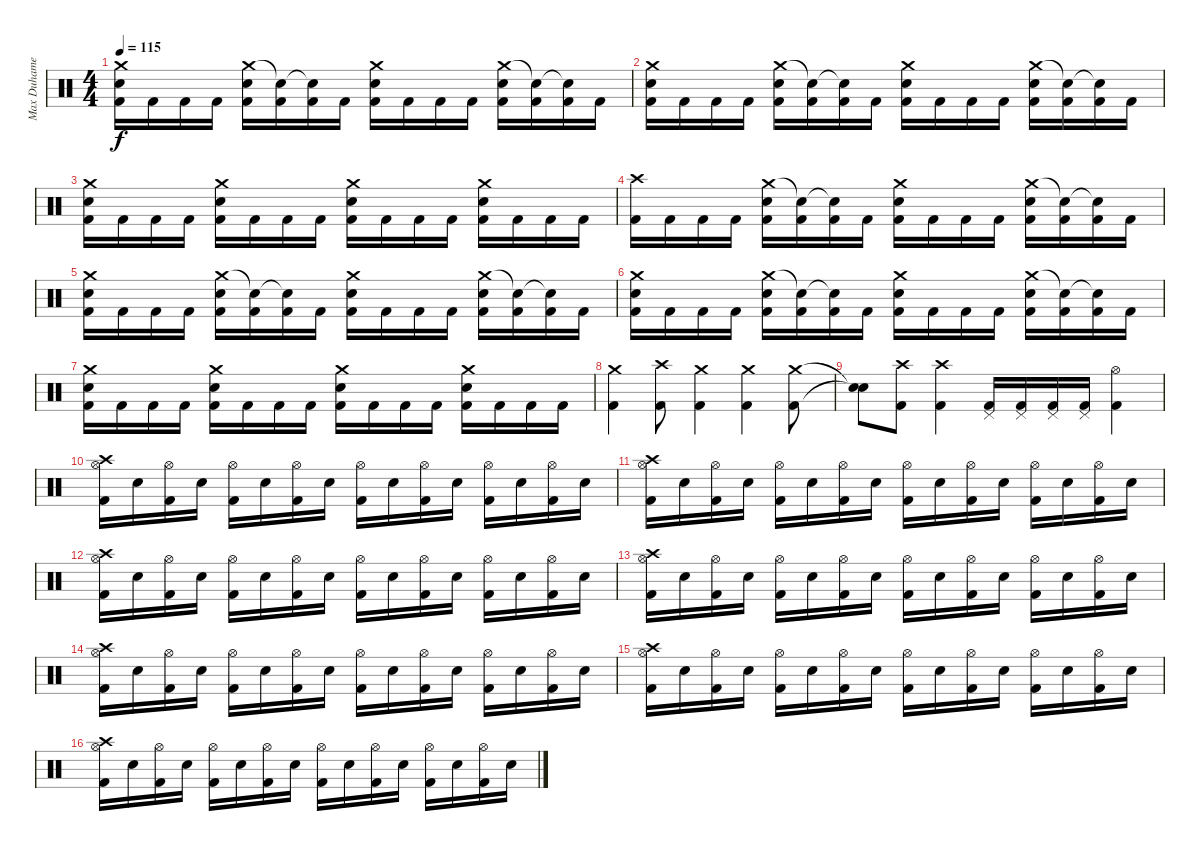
\track ("Max Duhamel (Drums)" "Max Duhame") {instrument percussion}
\staff {score}
\articulation defaults
\ts (4 4)
\tempo 115
\clef neutral
\ks c
("Crash medium (hit)" "Electric Snare (hit)" "Kick (hit) 2").16{dy f} "Kick (hit) 2".16 "Kick (hit) 2".16 "Kick (hit) 2".16 ("Crash medium (hit)" "Electric Snare (hit)" "Kick (hit) 2").16 ("Snare (hit)"{t} "Kick (hit) 2").16 ("Snare (hit)"{t} "Kick (hit) 2").16 "Kick (hit) 2".16 ("Crash medium (hit)" "Electric Snare (hit)" "Kick (hit) 2").16 "Kick (hit) 2".16 "Kick (hit) 2".16 "Kick (hit) 2".16 ("Crash medium (hit)" "Electric Snare (hit)" "Kick (hit) 2").16 ("Snare (hit)"{t} "Kick (hit) 2").16 ("Snare (hit)"{t} "Kick (hit) 2").16 "Kick (hit) 2".16 |
("Crash medium (hit)" "Electric Snare (hit)" "Kick (hit) 2").16 "Kick (hit) 2".16 "Kick (hit) 2".16 "Kick (hit) 2".16 ("Crash medium (hit)" "Electric Snare (hit)" "Kick (hit) 2").16 ("Snare (hit)"{t} "Kick (hit) 2").16 ("Snare (hit)"{t} "Kick (hit) 2").16 "Kick (hit) 2".16 ("Crash medium (hit)" "Electric Snare (hit)" "Kick (hit) 2").16 "Kick (hit) 2".16 "Kick (hit) 2".16 "Kick (hit) 2".16 ("Crash medium (hit)" "Electric Snare (hit)" "Kick (hit) 2").16 ("Snare (hit)"{t} "Kick (hit) 2").16 ("Snare (hit)"{t} "Kick (hit) 2").16 "Kick (hit) 2".16 |
("Crash medium (hit)" "Electric Snare (hit)" "Kick (hit) 2").16 "Kick (hit) 2".16 "Kick (hit) 2".16 "Kick (hit) 2".16 ("Crash medium (hit)" "Electric Snare (hit)" "Kick (hit) 2").16 "Kick (hit) 2".16 "Kick (hit) 2".16 "Kick (hit) 2".16 ("Crash medium (hit)" "Electric Snare (hit)" "Kick (hit) 2").16 "Kick (hit) 2".16 "Kick (hit) 2".16 "Kick (hit) 2".16 ("Crash medium (hit)" "Electric Snare (hit)" "Kick (hit) 2").16 "Kick (hit) 2".16 "Kick (hit) 2".16 "Kick (hit) 2".16 |
("Crash high (hit)" "Kick (hit) 2").16 "Kick (hit) 2".16 "Kick (hit) 2".16 "Kick (hit) 2".16 ("Crash medium (hit)" "Electric Snare (hit)" "Kick (hit) 2").16 ("Snare (hit)"{t} "Kick (hit) 2").16 ("Snare (hit)"{t} "Kick (hit) 2").16 "Kick (hit) 2".16 ("Crash medium (hit)" "Electric Snare (hit)" "Kick (hit) 2").16 "Kick (hit) 2".16 "Kick (hit) 2".16 "Kick (hit) 2".16 ("Crash medium (hit)" "Electric Snare (hit)" "Kick (hit) 2").16 ("Snare (hit)"{t} "Kick (hit) 2").16 ("Snare (hit)"{t} "Kick (hit) 2").16 "Kick (hit) 2".16 |
("Crash medium (hit)" "Electric Snare (hit)" "Kick (hit) 2").16 "Kick (hit) 2".16 "Kick (hit) 2".16 "Kick (hit) 2".16 ("Crash medium (hit)" "Electric Snare (hit)" "Kick (hit) 2").16 ("Snare (hit)"{t} "Kick (hit) 2").16 ("Snare (hit)"{t} "Kick (hit) 2").16 "Kick (hit) 2".16 ("Crash medium (hit)" "Electric Snare (hit)" "Kick (hit) 2").16 "Kick (hit) 2".16 "Kick (hit) 2".16 "Kick (hit) 2".16 ("Crash medium (hit)" "Electric Snare (hit)" "Kick (hit) 2").16 ("Snare (hit)"{t} "Kick (hit) 2").16 ("Snare (hit)"{t} "Kick (hit) 2").16 "Kick (hit) 2".16 |
("Crash medium (hit)" "Electric Snare (hit)" "Kick (hit) 2").16 "Kick (hit) 2".16 "Kick (hit) 2".16 "Kick (hit) 2".16 ("Crash medium (hit)" "Electric Snare (hit)" "Kick (hit) 2").16 ("Snare (hit)"{t} "Kick (hit) 2").16 ("Snare (hit)"{t} "Kick (hit) 2").16 "Kick (hit) 2".16 ("Crash medium (hit)" "Electric Snare (hit)" "Kick (hit) 2").16 "Kick (hit) 2".16 "Kick (hit) 2".16 "Kick (hit) 2".16 ("Crash medium (hit)" "Electric Snare (hit)" "Kick (hit) 2").16 ("Snare (hit)"{t} "Kick (hit) 2").16 ("Snare (hit)"{t} "Kick (hit) 2").16 "Kick (hit) 2".16 |
("Crash medium (hit)" "Electric Snare (hit)" "Kick (hit) 2").16 "Kick (hit) 2".16 "Kick (hit) 2".16 "Kick (hit) 2".16 ("Crash medium (hit)" "Electric Snare (hit)" "Kick (hit) 2").16 "Kick (hit) 2".16 "Kick (hit) 2".16 "Kick (hit) 2".16 ("Crash medium (hit)" "Electric Snare (hit)" "Kick (hit) 2").16 "Kick (hit) 2".16 "Kick (hit) 2".16 "Kick (hit) 2".16 ("Crash medium (hit)" "Electric Snare (hit)" "Kick (hit) 2").16 "Kick (hit) 2".16 "Kick (hit) 2".16 "Kick (hit) 2".16 |
("Crash medium (hit)" "Kick (hit) 2").4 ("Crash high (hit)" "Kick (hit) 2").8 ("Crash medium (hit)" "Kick (hit) 2").4 ("Crash medium (hit)" "Kick (hit) 2").4 ("Crash medium (hit)" "Kick (hit) 2").8 |
("Snare (hit)"{t} "Snare (hit)"{t}).8 ("Crash high (hit)" "Kick (hit) 2").8 ("Crash high (hit)" "Kick (hit) 2").4 ("Pedal Hi-Hat (hit)" "Kick (hit) 2").16 ("Pedal Hi-Hat (hit)" "Kick (hit) 2").16 ("Pedal Hi-Hat (hit)" "Kick (hit) 2").16 ("Pedal Hi-Hat (hit)" "Kick (hit) 2").16 ("Hi-Hat (open)" "Kick (hit) 2").4 |
("Crash high (hit)" "Hi-Hat (open)" "Kick (hit) 2").16 "Electric Snare (hit)".16 ("Hi-Hat (open)" "Kick (hit) 2").16 "Electric Snare (hit)".16 ("Hi-Hat (open)" "Kick (hit) 2").16 "Electric Snare (hit)".16 ("Hi-Hat (open)" "Kick (hit) 2").16 "Electric Snare (hit)".16 ("Hi-Hat (open)" "Kick (hit) 2").16 "Electric Snare (hit)".16 ("Hi-Hat (open)" "Kick (hit) 2").16 "Electric Snare (hit)".16 ("Hi-Hat (open)" "Kick (hit) 2").16 "Electric Snare (hit)".16 ("Hi-Hat (open)" "Kick (hit) 2").16 "Electric Snare (hit)".16 |
("Crash high (hit)" "Hi-Hat (open)" "Kick (hit) 2").16 "Electric Snare (hit)".16 ("Hi-Hat (open)" "Kick (hit) 2").16 "Electric Snare (hit)".16 ("Hi-Hat (open)" "Kick (hit) 2").16 "Electric Snare (hit)".16 ("Hi-Hat (open)" "Kick (hit) 2").16 "Electric Snare (hit)".16 ("Hi-Hat (open)" "Kick (hit) 2").16 "Electric Snare (hit)".16 ("Hi-Hat (open)" "Kick (hit) 2").16 "Electric Snare (hit)".16 ("Hi-Hat (open)" "Kick (hit) 2").16 "Electric Snare (hit)".16 ("Hi-Hat (open)" "Kick (hit) 2").16 "Electric Snare (hit)".16 |
("Crash high (hit)" "Hi-Hat (open)" "Kick (hit) 2").16 "Electric Snare (hit)".16 ("Hi-Hat (open)" "Kick (hit) 2").16 "Electric Snare (hit)".16 ("Hi-Hat (open)" "Kick (hit) 2").16 "Electric Snare (hit)".16 ("Hi-Hat (open)" "Kick (hit) 2").16 "Electric Snare (hit)".16 ("Hi-Hat (open)" "Kick (hit) 2").16 "Electric Snare (hit)".16 ("Hi-Hat (open)" "Kick (hit) 2").16 "Electric Snare (hit)".16 ("Hi-Hat (open)" "Kick (hit) 2").16 "Electric Snare (hit)".16 ("Hi-Hat (open)" "Kick (hit) 2").16 "Electric Snare (hit)".16 |
("Crash high (hit)" "Hi-Hat (open)" "Kick (hit) 2").16 "Electric Snare (hit)".16 ("Hi-Hat (open)" "Kick (hit) 2").16 "Electric Snare (hit)".16 ("Hi-Hat (open)" "Kick (hit) 2").16 "Electric Snare (hit)".16 ("Hi-Hat (open)" "Kick (hit) 2").16 "Electric Snare (hit)".16 ("Hi-Hat (open)" "Kick (hit) 2").16 "Electric Snare (hit)".16 ("Hi-Hat (open)" "Kick (hit) 2").16 "Electric Snare (hit)".16 ("Hi-Hat (open)" "Kick (hit) 2").16 "Electric Snare (hit)".16 ("Hi-Hat (open)" "Kick (hit) 2").16 "Electric Snare (hit)".16 |
("Crash high (hit)" "Hi-Hat (open)" "Kick (hit) 2").16 "Electric Snare (hit)".16 ("Hi-Hat (open)" "Kick (hit) 2").16 "Electric Snare (hit)".16 ("Hi-Hat (open)" "Kick (hit) 2").16 "Electric Snare (hit)".16 ("Hi-Hat (open)" "Kick (hit) 2").16 "Electric Snare (hit)".16 ("Hi-Hat (open)" "Kick (hit) 2").16 "Electric Snare (hit)".16 ("Hi-Hat (open)" "Kick (hit) 2").16 "Electric Snare (hit)".16 ("Hi-Hat (open)" "Kick (hit) 2").16 "Electric Snare (hit)".16 ("Hi-Hat (open)" "Kick (hit) 2").16 "Electric Snare (hit)".16 |
("Crash high (hit)" "Hi-Hat (open)" "Kick (hit) 2").16 "Electric Snare (hit)".16 ("Hi-Hat (open)" "Kick (hit) 2").16 "Electric Snare (hit)".16 ("Hi-Hat (open)" "Kick (hit) 2").16 "Electric Snare (hit)".16 ("Hi-Hat (open)" "Kick (hit) 2").16 "Electric Snare (hit)".16 ("Hi-Hat (open)" "Kick (hit) 2").16 "Electric Snare (hit)".16 ("Hi-Hat (open)" "Kick (hit) 2").16 "Electric Snare (hit)".16 ("Hi-Hat (open)" "Kick (hit) 2").16 "Electric Snare (hit)".16 ("Hi-Hat (open)" "Kick (hit) 2").16 "Electric Snare (hit)".16 |
("Crash high (hit)" "Hi-Hat (open)" "Kick (hit) 2").16 "Electric Snare (hit)".16 ("Hi-Hat (open)" "Kick (hit) 2").16 "Electric Snare (hit)".16 ("Hi-Hat (open)" "Kick (hit) 2").16 "Electric Snare (hit)".16 ("Hi-Hat (open)" "Kick (hit) 2").16 "Electric Snare (hit)".16 ("Hi-Hat (open)" "Kick (hit) 2").16 "Electric Snare (hit)".16 ("Hi-Hat (open)" "Kick (hit) 2").16 "Electric Snare (hit)".16 ("Hi-Hat (open)" "Kick (hit) 2").16 "Electric Snare (hit)".16 ("Hi-Hat (open)" "Kick (hit) 2").16 "Electric Snare (hit)".16
